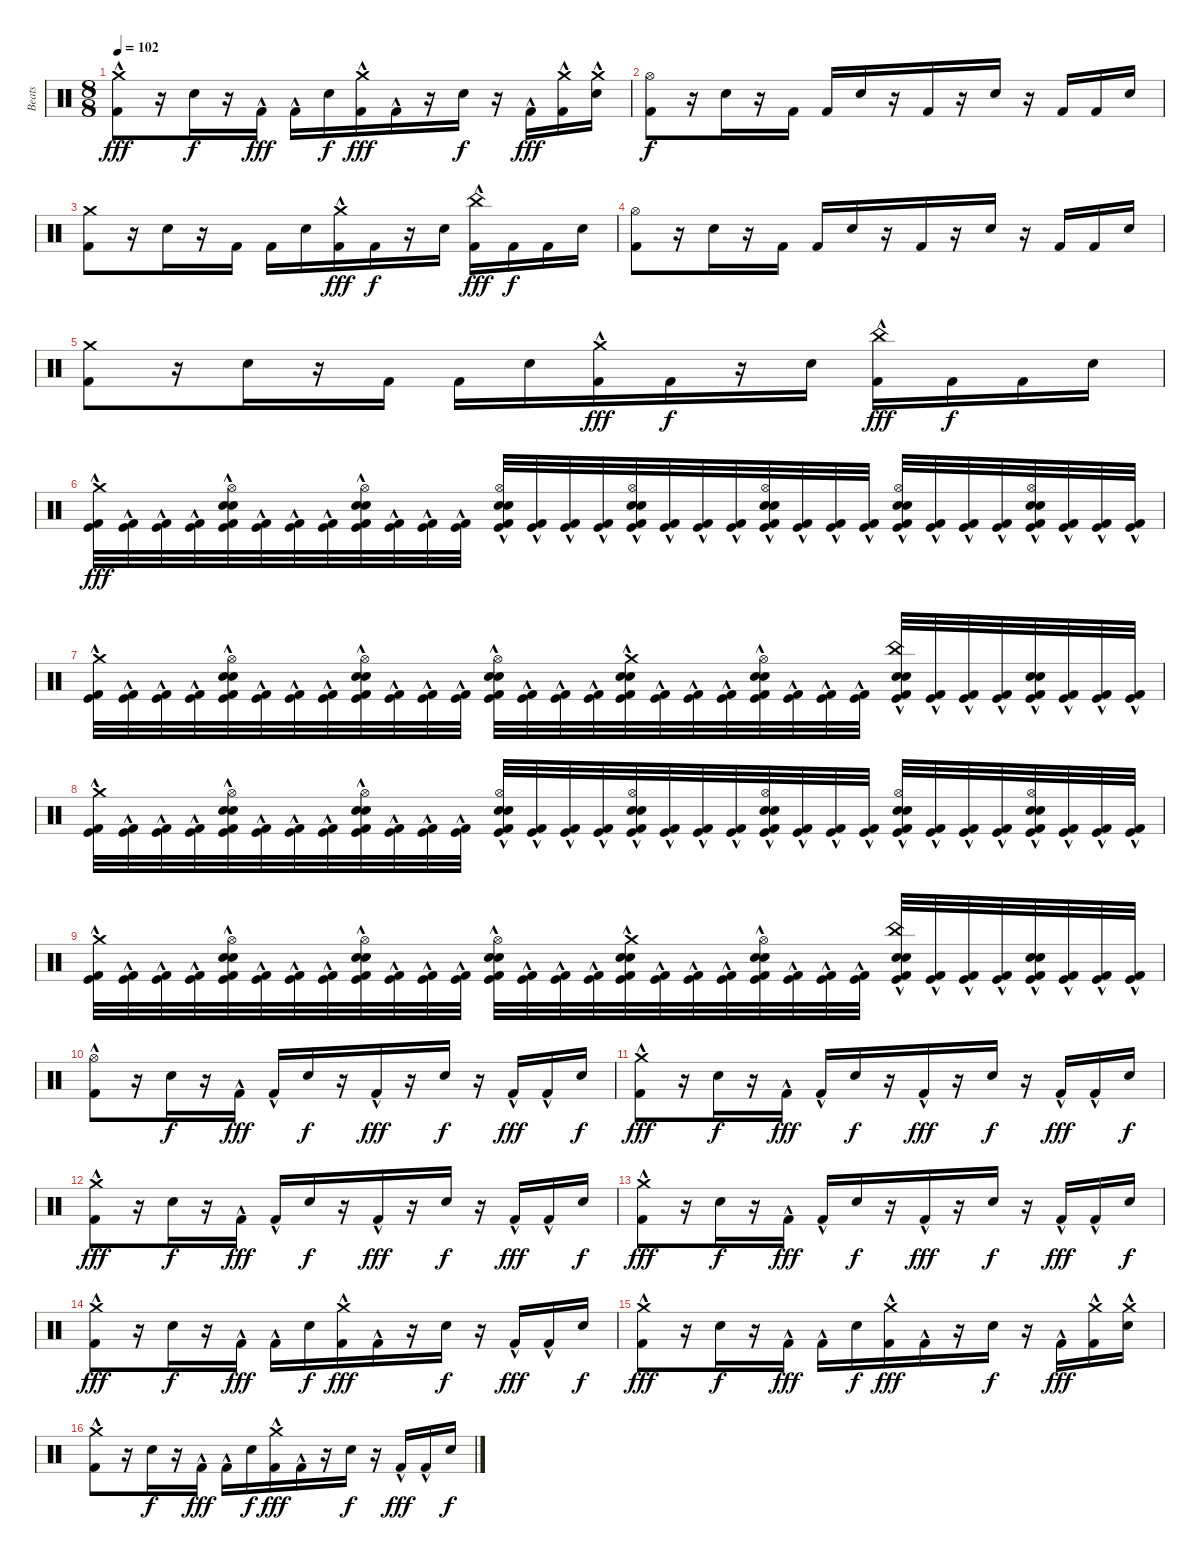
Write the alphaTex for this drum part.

\track ("Beats" "Beats") {instrument percussion}
\staff {score}
\articulation defaults
\ts (8 8)
\tempo 102
\clef neutral
\ks c
("Crash medium (hit)" "Kick (hit) 2"{hac}).8{dy fff} r.16 "Snare (hit) 2".16{dy f} r.16 "Kick (hit) 2"{hac}.16{dy fff} "Kick (hit) 2"{hac}.16 "Snare (hit) 2".16{dy f} ("Crash medium (hit)"{hac} "Kick (hit) 2"{hac}).16{dy fff} "Kick (hit) 2"{hac}.16 r.16 "Snare (hit) 2".16{dy f} r.16 "Kick (hit) 2"{hac}.16{dy fff} ("Crash medium (hit)"{hac} "Kick (hit) 2"{hac}).16 ("Crash medium (hit)"{hac} "Snare (hit) 2"{hac}).16 |
("Hi-Hat (open)" "Kick (hit) 2").8{dy f} r.16 "Snare (hit) 2".16 r.16 "Kick (hit) 2".16 "Kick (hit) 2".16 "Snare (hit) 2".16 r.16 "Kick (hit) 2".16 r.16 "Snare (hit) 2".16 r.16 "Kick (hit) 2".16 "Kick (hit) 2".16 "Snare (hit) 2".16 |
("Crash medium (hit)" "Kick (hit) 2").8 r.16 "Snare (hit) 2".16 r.16 "Kick (hit) 2".16 "Kick (hit) 2".16 "Snare (hit) 2".16 ("Crash medium (hit)"{hac} "Kick (hit) 2"{hac}).16{dy fff} "Kick (hit) 2".16{dy f} r.16 "Snare (hit) 2".16 ("China (hit)"{hac} "Kick (hit) 2"{hac}).16{dy fff} "Kick (hit) 2".16{dy f} "Kick (hit) 2".16 "Snare (hit) 2".16 |
("Hi-Hat (open)" "Kick (hit) 2").8 r.16 "Snare (hit) 2".16 r.16 "Kick (hit) 2".16 "Kick (hit) 2".16 "Snare (hit) 2".16 r.16 "Kick (hit) 2".16 r.16 "Snare (hit) 2".16 r.16 "Kick (hit) 2".16 "Kick (hit) 2".16 "Snare (hit) 2".16 |
("Crash medium (hit)" "Kick (hit) 2").8 r.16 "Snare (hit) 2".16 r.16 "Kick (hit) 2".16 "Kick (hit) 2".16 "Snare (hit) 2".16 ("Crash medium (hit)"{hac} "Kick (hit) 2"{hac}).16{dy fff} "Kick (hit) 2".16{dy f} r.16 "Snare (hit) 2".16 ("China (hit)"{hac} "Kick (hit) 2"{hac}).16{dy fff} "Kick (hit) 2".16{dy f} "Kick (hit) 2".16 "Snare (hit) 2".16 |
("Crash medium (hit)"{hac} "Kick (hit)"{hac} "Kick (hit) 2"{hac}).32{dy fff} ("Kick (hit)"{hac} "Kick (hit) 2"{hac}).32 ("Kick (hit)"{hac} "Kick (hit) 2"{hac}).32 ("Kick (hit)"{hac} "Kick (hit) 2"{hac}).32 ("Hi-Hat (open)" "Electric Snare (hit)" "Snare (hit) 2" "Kick (hit)"{hac} "Kick (hit) 2"{hac}).32 ("Kick (hit)"{hac} "Kick (hit) 2"{hac}).32 ("Kick (hit)"{hac} "Kick (hit) 2"{hac}).32 ("Kick (hit)"{hac} "Kick (hit) 2"{hac}).32 ("Hi-Hat (open)" "Electric Snare (hit)" "Snare (hit) 2" "Kick (hit)"{hac} "Kick (hit) 2"{hac}).32 ("Kick (hit)"{hac} "Kick (hit) 2"{hac}).32 ("Kick (hit)"{hac} "Kick (hit) 2"{hac}).32 ("Kick (hit)"{hac} "Kick (hit) 2"{hac}).32 ("Hi-Hat (open)" "Electric Snare (hit)" "Snare (hit) 2" "Kick (hit)"{hac} "Kick (hit) 2"{hac}).32 ("Kick (hit)"{hac} "Kick (hit) 2"{hac}).32 ("Kick (hit)"{hac} "Kick (hit) 2"{hac}).32 ("Kick (hit)"{hac} "Kick (hit) 2"{hac}).32 ("Hi-Hat (open)" "Electric Snare (hit)" "Snare (hit) 2" "Kick (hit)"{hac} "Kick (hit) 2"{hac}).32 ("Kick (hit)"{hac} "Kick (hit) 2"{hac}).32 ("Kick (hit)"{hac} "Kick (hit) 2"{hac}).32 ("Kick (hit)"{hac} "Kick (hit) 2"{hac}).32 ("Hi-Hat (open)" "Electric Snare (hit)" "Snare (hit) 2" "Kick (hit)"{hac} "Kick (hit) 2"{hac}).32 ("Kick (hit)"{hac} "Kick (hit) 2"{hac}).32 ("Kick (hit)"{hac} "Kick (hit) 2"{hac}).32 ("Kick (hit)"{hac} "Kick (hit) 2"{hac}).32 ("Hi-Hat (open)" "Electric Snare (hit)" "Snare (hit) 2" "Kick (hit)"{hac} "Kick (hit) 2"{hac}).32 ("Kick (hit)"{hac} "Kick (hit) 2"{hac}).32 ("Kick (hit)"{hac} "Kick (hit) 2"{hac}).32 ("Kick (hit)"{hac} "Kick (hit) 2"{hac}).32 ("Hi-Hat (open)" "Electric Snare (hit)" "Snare (hit) 2" "Kick (hit)"{hac} "Kick (hit) 2"{hac}).32 ("Kick (hit)"{hac} "Kick (hit) 2"{hac}).32 ("Kick (hit)"{hac} "Kick (hit) 2"{hac}).32 ("Kick (hit)"{hac} "Kick (hit) 2"{hac}).32 |
("Crash medium (hit)"{hac} "Kick (hit)"{hac} "Kick (hit) 2"{hac}).32 ("Kick (hit)"{hac} "Kick (hit) 2"{hac}).32 ("Kick (hit)"{hac} "Kick (hit) 2"{hac}).32 ("Kick (hit)"{hac} "Kick (hit) 2"{hac}).32 ("Hi-Hat (open)" "Electric Snare (hit)" "Snare (hit) 2" "Kick (hit)"{hac} "Kick (hit) 2"{hac}).32 ("Kick (hit)"{hac} "Kick (hit) 2"{hac}).32 ("Kick (hit)"{hac} "Kick (hit) 2"{hac}).32 ("Kick (hit)"{hac} "Kick (hit) 2"{hac}).32 ("Hi-Hat (open)" "Electric Snare (hit)" "Snare (hit) 2" "Kick (hit)"{hac} "Kick (hit) 2"{hac}).32 ("Kick (hit)"{hac} "Kick (hit) 2"{hac}).32 ("Kick (hit)"{hac} "Kick (hit) 2"{hac}).32 ("Kick (hit)"{hac} "Kick (hit) 2"{hac}).32 ("Hi-Hat (open)" "Electric Snare (hit)" "Snare (hit) 2" "Kick (hit)"{hac} "Kick (hit) 2"{hac}).32 ("Kick (hit)"{hac} "Kick (hit) 2"{hac}).32 ("Kick (hit)"{hac} "Kick (hit) 2"{hac}).32 ("Kick (hit)"{hac} "Kick (hit) 2"{hac}).32 ("Crash medium (hit)"{hac} "Electric Snare (hit)" "Snare (hit) 2" "Kick (hit)"{hac} "Kick (hit) 2"{hac}).32 ("Kick (hit)"{hac} "Kick (hit) 2"{hac}).32 ("Kick (hit)"{hac} "Kick (hit) 2"{hac}).32 ("Kick (hit)"{hac} "Kick (hit) 2"{hac}).32 ("Hi-Hat (open)" "Electric Snare (hit)" "Snare (hit) 2" "Kick (hit)"{hac} "Kick (hit) 2"{hac}).32 ("Kick (hit)"{hac} "Kick (hit) 2"{hac}).32 ("Kick (hit)"{hac} "Kick (hit) 2"{hac}).32 ("Kick (hit)"{hac} "Kick (hit) 2"{hac}).32 ("China (hit)"{hac} "Electric Snare (hit)" "Snare (hit) 2" "Kick (hit)"{hac} "Kick (hit) 2"{hac}).32 ("Kick (hit)"{hac} "Kick (hit) 2"{hac}).32 ("Kick (hit)"{hac} "Kick (hit) 2"{hac}).32 ("Kick (hit)"{hac} "Kick (hit) 2"{hac}).32 ("Electric Snare (hit)" "Snare (hit) 2" "Kick (hit)"{hac} "Kick (hit) 2"{hac}).32 ("Kick (hit)"{hac} "Kick (hit) 2"{hac}).32 ("Kick (hit)"{hac} "Kick (hit) 2"{hac}).32 ("Kick (hit)"{hac} "Kick (hit) 2"{hac}).32 |
("Crash medium (hit)" "Kick (hit)"{hac} "Kick (hit) 2"{hac}).32 ("Kick (hit)"{hac} "Kick (hit) 2"{hac}).32 ("Kick (hit)"{hac} "Kick (hit) 2"{hac}).32 ("Kick (hit)"{hac} "Kick (hit) 2"{hac}).32 ("Hi-Hat (open)" "Electric Snare (hit)" "Snare (hit) 2" "Kick (hit)"{hac} "Kick (hit) 2"{hac}).32 ("Kick (hit)"{hac} "Kick (hit) 2"{hac}).32 ("Kick (hit)"{hac} "Kick (hit) 2"{hac}).32 ("Kick (hit)"{hac} "Kick (hit) 2"{hac}).32 ("Hi-Hat (open)" "Electric Snare (hit)" "Snare (hit) 2" "Kick (hit)"{hac} "Kick (hit) 2"{hac}).32 ("Kick (hit)"{hac} "Kick (hit) 2"{hac}).32 ("Kick (hit)"{hac} "Kick (hit) 2"{hac}).32 ("Kick (hit)"{hac} "Kick (hit) 2"{hac}).32 ("Hi-Hat (open)" "Electric Snare (hit)" "Snare (hit) 2" "Kick (hit)"{hac} "Kick (hit) 2"{hac}).32 ("Kick (hit)"{hac} "Kick (hit) 2"{hac}).32 ("Kick (hit)"{hac} "Kick (hit) 2"{hac}).32 ("Kick (hit)"{hac} "Kick (hit) 2"{hac}).32 ("Hi-Hat (open)" "Electric Snare (hit)" "Snare (hit) 2" "Kick (hit)"{hac} "Kick (hit) 2"{hac}).32 ("Kick (hit)"{hac} "Kick (hit) 2"{hac}).32 ("Kick (hit)"{hac} "Kick (hit) 2"{hac}).32 ("Kick (hit)"{hac} "Kick (hit) 2"{hac}).32 ("Hi-Hat (open)" "Electric Snare (hit)" "Snare (hit) 2" "Kick (hit)"{hac} "Kick (hit) 2"{hac}).32 ("Kick (hit)"{hac} "Kick (hit) 2"{hac}).32 ("Kick (hit)"{hac} "Kick (hit) 2"{hac}).32 ("Kick (hit)"{hac} "Kick (hit) 2"{hac}).32 ("Hi-Hat (open)" "Electric Snare (hit)" "Snare (hit) 2" "Kick (hit)"{hac} "Kick (hit) 2"{hac}).32 ("Kick (hit)"{hac} "Kick (hit) 2"{hac}).32 ("Kick (hit)"{hac} "Kick (hit) 2"{hac}).32 ("Kick (hit)"{hac} "Kick (hit) 2"{hac}).32 ("Hi-Hat (open)" "Electric Snare (hit)" "Snare (hit) 2" "Kick (hit)"{hac} "Kick (hit) 2"{hac}).32 ("Kick (hit)"{hac} "Kick (hit) 2"{hac}).32 ("Kick (hit)"{hac} "Kick (hit) 2"{hac}).32 ("Kick (hit)"{hac} "Kick (hit) 2"{hac}).32 |
("Crash medium (hit)"{hac} "Kick (hit)"{hac} "Kick (hit) 2"{hac}).32 ("Kick (hit)"{hac} "Kick (hit) 2"{hac}).32 ("Kick (hit)"{hac} "Kick (hit) 2"{hac}).32 ("Kick (hit)"{hac} "Kick (hit) 2"{hac}).32 ("Hi-Hat (open)" "Electric Snare (hit)" "Snare (hit) 2" "Kick (hit)"{hac} "Kick (hit) 2"{hac}).32 ("Kick (hit)"{hac} "Kick (hit) 2"{hac}).32 ("Kick (hit)"{hac} "Kick (hit) 2"{hac}).32 ("Kick (hit)"{hac} "Kick (hit) 2"{hac}).32 ("Hi-Hat (open)" "Electric Snare (hit)" "Snare (hit) 2" "Kick (hit)"{hac} "Kick (hit) 2"{hac}).32 ("Kick (hit)"{hac} "Kick (hit) 2"{hac}).32 ("Kick (hit)"{hac} "Kick (hit) 2"{hac}).32 ("Kick (hit)"{hac} "Kick (hit) 2"{hac}).32 ("Hi-Hat (open)" "Electric Snare (hit)" "Snare (hit) 2" "Kick (hit)"{hac} "Kick (hit) 2"{hac}).32 ("Kick (hit)"{hac} "Kick (hit) 2"{hac}).32 ("Kick (hit)"{hac} "Kick (hit) 2"{hac}).32 ("Kick (hit)"{hac} "Kick (hit) 2"{hac}).32 ("Crash medium (hit)"{hac} "Electric Snare (hit)" "Snare (hit) 2" "Kick (hit)"{hac} "Kick (hit) 2"{hac}).32 ("Kick (hit)"{hac} "Kick (hit) 2"{hac}).32 ("Kick (hit)"{hac} "Kick (hit) 2"{hac}).32 ("Kick (hit)"{hac} "Kick (hit) 2"{hac}).32 ("Hi-Hat (open)" "Electric Snare (hit)" "Snare (hit) 2" "Kick (hit)"{hac} "Kick (hit) 2"{hac}).32 ("Kick (hit)"{hac} "Kick (hit) 2"{hac}).32 ("Kick (hit)"{hac} "Kick (hit) 2"{hac}).32 ("Kick (hit)"{hac} "Kick (hit) 2"{hac}).32 ("China (hit)"{hac} "Electric Snare (hit)" "Snare (hit) 2" "Kick (hit)"{hac} "Kick (hit) 2"{hac}).32 ("Kick (hit)"{hac} "Kick (hit) 2"{hac}).32 ("Kick (hit)"{hac} "Kick (hit) 2"{hac}).32 ("Kick (hit)"{hac} "Kick (hit) 2"{hac}).32 ("Electric Snare (hit)" "Snare (hit) 2" "Kick (hit)"{hac} "Kick (hit) 2"{hac}).32 ("Kick (hit)"{hac} "Kick (hit) 2"{hac}).32 ("Kick (hit)"{hac} "Kick (hit) 2"{hac}).32 ("Kick (hit)"{hac} "Kick (hit) 2"{hac}).32 |
("Hi-Hat (open)" "Kick (hit) 2"{hac}).8 r.16 "Snare (hit) 2".16{dy f} r.16 "Kick (hit) 2"{hac}.16{dy fff} "Kick (hit) 2"{hac}.16 "Snare (hit) 2".16{dy f} r.16 "Kick (hit) 2"{hac}.16{dy fff} r.16 "Snare (hit) 2".16{dy f} r.16 "Kick (hit) 2"{hac}.16{dy fff} "Kick (hit) 2"{hac}.16 "Snare (hit) 2".16{dy f} |
("Crash medium (hit)" "Kick (hit) 2"{hac}).8{dy fff} r.16 "Snare (hit) 2".16{dy f} r.16 "Kick (hit) 2"{hac}.16{dy fff} "Kick (hit) 2"{hac}.16 "Snare (hit) 2".16{dy f} r.16 "Kick (hit) 2"{hac}.16{dy fff} r.16 "Snare (hit) 2".16{dy f} r.16 "Kick (hit) 2"{hac}.16{dy fff} "Kick (hit) 2"{hac}.16 "Snare (hit) 2".16{dy f} |
("Crash medium (hit)" "Kick (hit) 2"{hac}).8{dy fff} r.16 "Snare (hit) 2".16{dy f} r.16 "Kick (hit) 2"{hac}.16{dy fff} "Kick (hit) 2"{hac}.16 "Snare (hit) 2".16{dy f} r.16 "Kick (hit) 2"{hac}.16{dy fff} r.16 "Snare (hit) 2".16{dy f} r.16 "Kick (hit) 2"{hac}.16{dy fff} "Kick (hit) 2"{hac}.16 "Snare (hit) 2".16{dy f} |
("Crash medium (hit)" "Kick (hit) 2"{hac}).8{dy fff} r.16 "Snare (hit) 2".16{dy f} r.16 "Kick (hit) 2"{hac}.16{dy fff} "Kick (hit) 2"{hac}.16 "Snare (hit) 2".16{dy f} r.16 "Kick (hit) 2"{hac}.16{dy fff} r.16 "Snare (hit) 2".16{dy f} r.16 "Kick (hit) 2"{hac}.16{dy fff} "Kick (hit) 2"{hac}.16 "Snare (hit) 2".16{dy f} |
("Crash medium (hit)" "Kick (hit) 2"{hac}).8{dy fff} r.16 "Snare (hit) 2".16{dy f} r.16 "Kick (hit) 2"{hac}.16{dy fff} "Kick (hit) 2"{hac}.16 "Snare (hit) 2".16{dy f} ("Crash medium (hit)"{hac} "Kick (hit) 2"{hac}).16{dy fff} "Kick (hit) 2"{hac}.16 r.16 "Snare (hit) 2".16{dy f} r.16 "Kick (hit) 2"{hac}.16{dy fff} "Kick (hit) 2"{hac}.16 "Snare (hit) 2".16{dy f} |
("Crash medium (hit)" "Kick (hit) 2"{hac}).8{dy fff} r.16 "Snare (hit) 2".16{dy f} r.16 "Kick (hit) 2"{hac}.16{dy fff} "Kick (hit) 2"{hac}.16 "Snare (hit) 2".16{dy f} ("Crash medium (hit)"{hac} "Kick (hit) 2"{hac}).16{dy fff} "Kick (hit) 2"{hac}.16 r.16 "Snare (hit) 2".16{dy f} r.16 "Kick (hit) 2"{hac}.16{dy fff} ("Crash medium (hit)"{hac} "Kick (hit) 2"{hac}).16 ("Crash medium (hit)"{hac} "Snare (hit) 2"{hac}).16 |
("Crash medium (hit)" "Kick (hit) 2"{hac}).8 r.16 "Snare (hit) 2".16{dy f} r.16 "Kick (hit) 2"{hac}.16{dy fff} "Kick (hit) 2"{hac}.16 "Snare (hit) 2".16{dy f} ("Crash medium (hit)"{hac} "Kick (hit) 2"{hac}).16{dy fff} "Kick (hit) 2"{hac}.16 r.16 "Snare (hit) 2".16{dy f} r.16 "Kick (hit) 2"{hac}.16{dy fff} "Kick (hit) 2"{hac}.16 "Snare (hit) 2".16{dy f}
